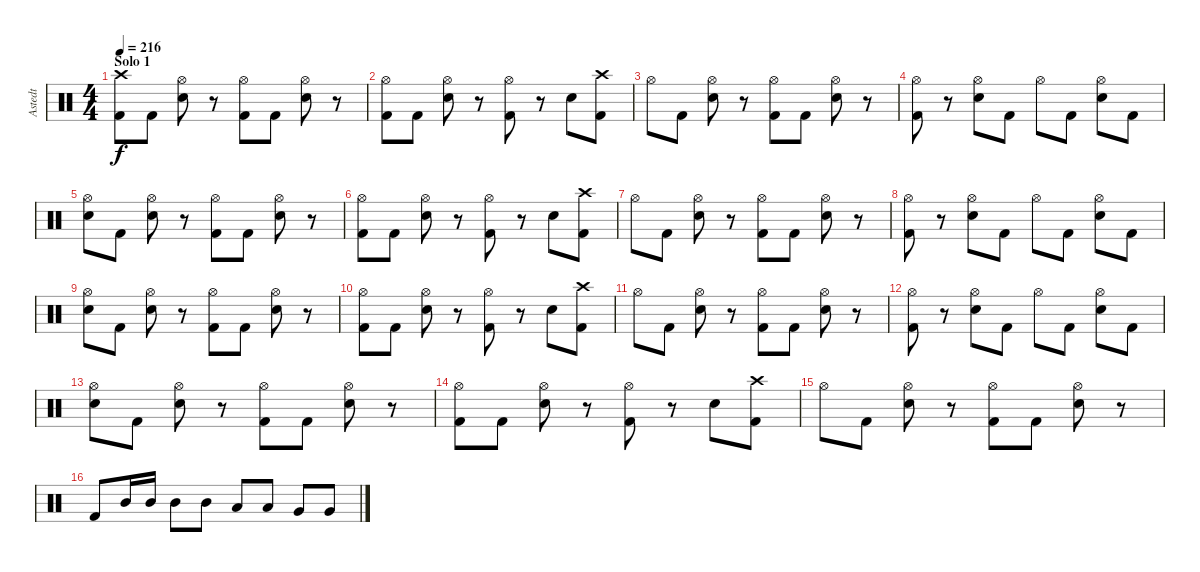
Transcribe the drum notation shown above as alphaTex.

\track ("Astedt" "Astedt") {instrument percussion}
\staff {score}
\articulation defaults
\ts (4 4)
\section ("" "Solo 1")
\tempo 216
\clef neutral
\ks c
("Crash high (hit)" "Kick (hit) 2").8{dy f} "Kick (hit) 2".8 ("Hi-Hat (open)" "Snare (hit) 2").8 r.8 ("Hi-Hat (open)" "Kick (hit) 2").8 "Kick (hit) 2".8 ("Hi-Hat (open)" "Snare (hit) 2").8 r.8 |
("Hi-Hat (open)" "Kick (hit) 2").8 "Kick (hit) 2".8 ("Hi-Hat (open)" "Snare (hit) 2").8 r.8 ("Hi-Hat (open)" "Kick (hit) 2").8 r.8 "Snare (hit) 2".8 ("Crash high (hit)" "Kick (hit) 2").8 |
"Hi-Hat (open)".8 "Kick (hit) 2".8 ("Hi-Hat (open)" "Snare (hit) 2").8 r.8 ("Hi-Hat (open)" "Kick (hit) 2").8 "Kick (hit) 2".8 ("Hi-Hat (open)" "Snare (hit) 2").8 r.8 |
("Hi-Hat (open)" "Kick (hit) 2").8 r.8 ("Hi-Hat (open)" "Snare (hit) 2").8 "Kick (hit) 2".8 "Hi-Hat (open)".8 "Kick (hit) 2".8 ("Hi-Hat (open)" "Snare (hit) 2").8 "Kick (hit) 2".8 |
("Hi-Hat (open)" "Snare (hit) 2").8 "Kick (hit) 2".8 ("Hi-Hat (open)" "Snare (hit) 2").8 r.8 ("Hi-Hat (open)" "Kick (hit) 2").8 "Kick (hit) 2".8 ("Hi-Hat (open)" "Snare (hit) 2").8 r.8 |
("Hi-Hat (open)" "Kick (hit) 2").8 "Kick (hit) 2".8 ("Hi-Hat (open)" "Snare (hit) 2").8 r.8 ("Hi-Hat (open)" "Kick (hit) 2").8 r.8 "Snare (hit) 2".8 ("Crash high (hit)" "Kick (hit) 2").8 |
"Hi-Hat (open)".8 "Kick (hit) 2".8 ("Hi-Hat (open)" "Snare (hit) 2").8 r.8 ("Hi-Hat (open)" "Kick (hit) 2").8 "Kick (hit) 2".8 ("Hi-Hat (open)" "Snare (hit) 2").8 r.8 |
("Hi-Hat (open)" "Kick (hit) 2").8 r.8 ("Hi-Hat (open)" "Snare (hit) 2").8 "Kick (hit) 2".8 "Hi-Hat (open)".8 "Kick (hit) 2".8 ("Hi-Hat (open)" "Snare (hit) 2").8 "Kick (hit) 2".8 |
("Hi-Hat (open)" "Snare (hit) 2").8 "Kick (hit) 2".8 ("Hi-Hat (open)" "Snare (hit) 2").8 r.8 ("Hi-Hat (open)" "Kick (hit) 2").8 "Kick (hit) 2".8 ("Hi-Hat (open)" "Snare (hit) 2").8 r.8 |
("Hi-Hat (open)" "Kick (hit) 2").8 "Kick (hit) 2".8 ("Hi-Hat (open)" "Snare (hit) 2").8 r.8 ("Hi-Hat (open)" "Kick (hit) 2").8 r.8 "Snare (hit) 2".8 ("Crash high (hit)" "Kick (hit) 2").8 |
"Hi-Hat (open)".8 "Kick (hit) 2".8 ("Hi-Hat (open)" "Snare (hit) 2").8 r.8 ("Hi-Hat (open)" "Kick (hit) 2").8 "Kick (hit) 2".8 ("Hi-Hat (open)" "Snare (hit) 2").8 r.8 |
("Hi-Hat (open)" "Kick (hit) 2").8 r.8 ("Hi-Hat (open)" "Snare (hit) 2").8 "Kick (hit) 2".8 "Hi-Hat (open)".8 "Kick (hit) 2".8 ("Hi-Hat (open)" "Snare (hit) 2").8 "Kick (hit) 2".8 |
("Hi-Hat (open)" "Snare (hit) 2").8 "Kick (hit) 2".8 ("Hi-Hat (open)" "Snare (hit) 2").8 r.8 ("Hi-Hat (open)" "Kick (hit) 2").8 "Kick (hit) 2".8 ("Hi-Hat (open)" "Snare (hit) 2").8 r.8 |
("Hi-Hat (open)" "Kick (hit) 2").8 "Kick (hit) 2".8 ("Hi-Hat (open)" "Snare (hit) 2").8 r.8 ("Hi-Hat (open)" "Kick (hit) 2").8 r.8 "Snare (hit) 2".8 ("Crash high (hit)" "Kick (hit) 2").8 |
"Hi-Hat (open)".8 "Kick (hit) 2".8 ("Hi-Hat (open)" "Snare (hit) 2").8 r.8 ("Hi-Hat (open)" "Kick (hit) 2").8 "Kick (hit) 2".8 ("Hi-Hat (open)" "Snare (hit) 2").8 r.8 |
"Kick (hit) 2".8 "Mid Tom (hit)".16 "Mid Tom (hit)".16 "Mid Tom (hit)".8 "Mid Tom (hit)".8 "Low Tom (hit)".8 "Low Tom (hit)".8 "Very Low Tom (hit)".8 "Very Low Tom (hit)".8
